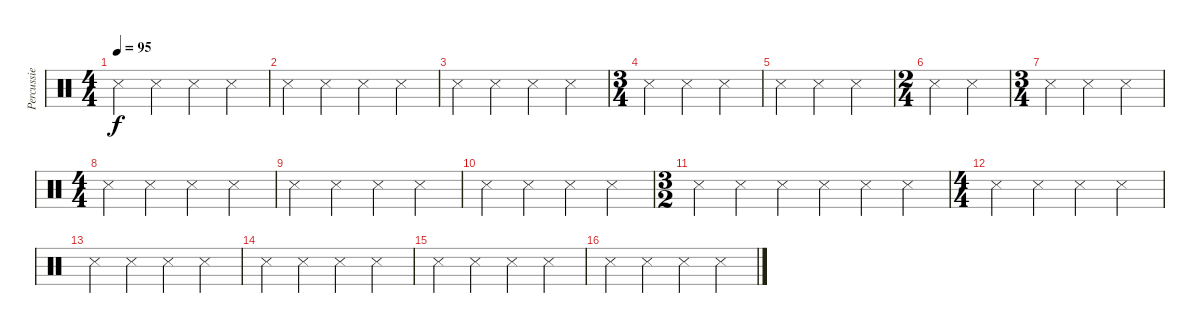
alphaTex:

\track ("Percussie" "Percussie") {instrument percussion}
\staff {score}
\articulation defaults
\ts (4 4)
\tempo 95
\clef neutral
\ks c "Snare (side stick) 3".4{dy f} "Snare (side stick) 3".4 "Snare (side stick) 3".4 "Snare (side stick) 3".4
|
"Snare (side stick) 3".4 "Snare (side stick) 3".4 "Snare (side stick) 3".4 "Snare (side stick) 3".4 |
"Snare (side stick) 3".4 "Snare (side stick) 3".4 "Snare (side stick) 3".4 "Snare (side stick) 3".4 |
\ts (3 4)
"Snare (side stick) 3".4 "Snare (side stick) 3".4 "Snare (side stick) 3".4 |
"Snare (side stick) 3".4 "Snare (side stick) 3".4 "Snare (side stick) 3".4 |
\ts (2 4)
"Snare (side stick) 3".4 "Snare (side stick) 3".4 |
\ts (3 4)
"Snare (side stick) 3".4 "Snare (side stick) 3".4 "Snare (side stick) 3".4 |
\ts (4 4)
"Snare (side stick) 3".4 "Snare (side stick) 3".4 "Snare (side stick) 3".4 "Snare (side stick) 3".4 |
"Snare (side stick) 3".4 "Snare (side stick) 3".4 "Snare (side stick) 3".4 "Snare (side stick) 3".4 |
"Snare (side stick) 3".4 "Snare (side stick) 3".4 "Snare (side stick) 3".4 "Snare (side stick) 3".4 |
\ts (3 2)
"Snare (side stick) 3".4 "Snare (side stick) 3".4 "Snare (side stick) 3".4 "Snare (side stick) 3".4 "Snare (side stick) 3".4 "Snare (side stick) 3".4 |
\ts (4 4)
"Snare (side stick) 3".4 "Snare (side stick) 3".4 "Snare (side stick) 3".4 "Snare (side stick) 3".4 |
"Snare (side stick) 3".4 "Snare (side stick) 3".4 "Snare (side stick) 3".4 "Snare (side stick) 3".4 |
"Snare (side stick) 3".4 "Snare (side stick) 3".4 "Snare (side stick) 3".4 "Snare (side stick) 3".4 |
"Snare (side stick) 3".4 "Snare (side stick) 3".4 "Snare (side stick) 3".4 "Snare (side stick) 3".4 |
"Snare (side stick) 3".4 "Snare (side stick) 3".4 "Snare (side stick) 3".4 "Snare (side stick) 3".4
